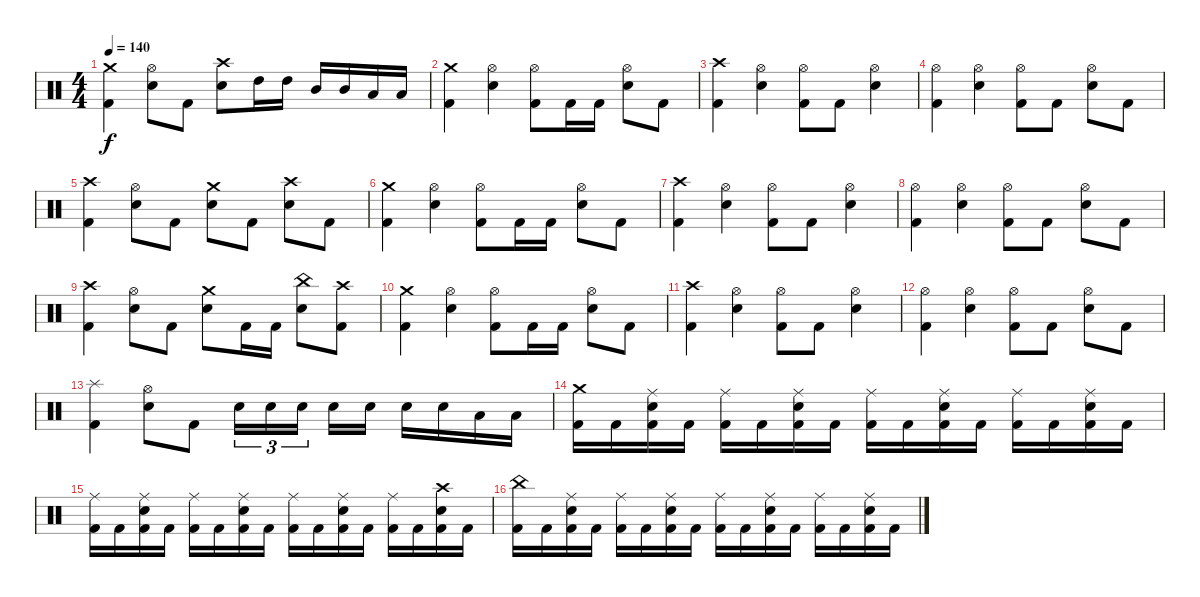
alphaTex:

\track "" {instrument percussion}
\staff {score}
\articulation defaults
\ts (4 4)
\tempo 140
\clef neutral
\ks c
("Crash medium (hit)" "Kick (hit) 2").4{dy f} ("Hi-Hat (open)" "Electric Snare (hit)").8 "Kick (hit) 2".8 ("Crash high (hit)" "Electric Snare (hit)").8 "High Tom (hit)".16 "High Tom (hit)".16 "Mid Tom (hit)".16 "Mid Tom (hit)".16 "Low Tom (hit)".16 "Low Tom (hit)".16 |
("Crash medium (hit)" "Kick (hit) 2").4 ("Hi-Hat (open)" "Electric Snare (hit)").4 ("Hi-Hat (open)" "Kick (hit) 2").8 "Kick (hit) 2".16 "Kick (hit) 2".16 ("Hi-Hat (open)" "Electric Snare (hit)").8 "Kick (hit) 2".8 |
("Crash high (hit)" "Kick (hit) 2").4 ("Hi-Hat (open)" "Electric Snare (hit)").4 ("Hi-Hat (open)" "Kick (hit) 2").8 "Kick (hit) 2".8 ("Hi-Hat (open)" "Electric Snare (hit)").4 |
("Hi-Hat (open)" "Kick (hit) 2").4 ("Hi-Hat (open)" "Electric Snare (hit)").4 ("Hi-Hat (open)" "Kick (hit) 2").8 "Kick (hit) 2".8 ("Hi-Hat (open)" "Electric Snare (hit)").8 "Kick (hit) 2".8 |
("Crash high (hit)" "Kick (hit) 2").4 ("Hi-Hat (open)" "Electric Snare (hit)").8 "Kick (hit) 2".8 ("Crash medium (hit)" "Electric Snare (hit)").8 "Kick (hit) 2".8 ("Crash high (hit)" "Electric Snare (hit)").8 "Kick (hit) 2".8 |
("Crash medium (hit)" "Kick (hit) 2").4 ("Hi-Hat (open)" "Electric Snare (hit)").4 ("Hi-Hat (open)" "Kick (hit) 2").8 "Kick (hit) 2".16 "Kick (hit) 2".16 ("Hi-Hat (open)" "Electric Snare (hit)").8 "Kick (hit) 2".8 |
("Crash high (hit)" "Kick (hit) 2").4 ("Hi-Hat (open)" "Electric Snare (hit)").4 ("Hi-Hat (open)" "Kick (hit) 2").8 "Kick (hit) 2".8 ("Hi-Hat (open)" "Electric Snare (hit)").4 |
("Hi-Hat (open)" "Kick (hit) 2").4 ("Hi-Hat (open)" "Electric Snare (hit)").4 ("Hi-Hat (open)" "Kick (hit) 2").8 "Kick (hit) 2".8 ("Hi-Hat (open)" "Electric Snare (hit)").8 "Kick (hit) 2".8 |
("Crash high (hit)" "Kick (hit) 2").4 ("Hi-Hat (open)" "Electric Snare (hit)").8 "Kick (hit) 2".8 ("Crash medium (hit)" "Electric Snare (hit)").8 "Kick (hit) 2".16 "Kick (hit) 2".16 ("China (hit)" "Electric Snare (hit)").8 ("Crash high (hit)" "Kick (hit) 2").8 |
("Crash medium (hit)" "Kick (hit) 2").4 ("Hi-Hat (open)" "Electric Snare (hit)").4 ("Hi-Hat (open)" "Kick (hit) 2").8 "Kick (hit) 2".16 "Kick (hit) 2".16 ("Hi-Hat (open)" "Electric Snare (hit)").8 "Kick (hit) 2".8 |
("Crash high (hit)" "Kick (hit) 2").4 ("Hi-Hat (open)" "Electric Snare (hit)").4 ("Hi-Hat (open)" "Kick (hit) 2").8 "Kick (hit) 2".8 ("Hi-Hat (open)" "Electric Snare (hit)").4 |
("Hi-Hat (open)" "Kick (hit) 2").4 ("Hi-Hat (open)" "Electric Snare (hit)").4 ("Hi-Hat (open)" "Kick (hit) 2").8 "Kick (hit) 2".8 ("Hi-Hat (open)" "Electric Snare (hit)").8 "Kick (hit) 2".8 |
("Splash (hit)" "Kick (hit) 2").4 ("Hi-Hat (open)" "Electric Snare (hit)").8 "Kick (hit) 2".8 "Electric Snare (hit)".16{tu (3 2)} "Electric Snare (hit)".16{tu (3 2)} "Electric Snare (hit)".16{tu (3 2) beam splitsecondary} "Electric Snare (hit)".16 "Electric Snare (hit)".16 "Electric Snare (hit)".16 "Electric Snare (hit)".16 "Low Tom (hit)".16 "Low Tom (hit)".16 |
("Crash medium (hit)" "Kick (hit) 2").16 "Kick (hit) 2".16 ("Ride (middle)" "Electric Snare (hit)" "Kick (hit) 2").16 "Kick (hit) 2".16 ("Ride (middle)" "Kick (hit) 2").16 "Kick (hit) 2".16 ("Ride (middle)" "Electric Snare (hit)" "Kick (hit) 2").16 "Kick (hit) 2".16 ("Ride (middle)" "Kick (hit) 2").16 "Kick (hit) 2".16 ("Ride (middle)" "Electric Snare (hit)" "Kick (hit) 2").16 "Kick (hit) 2".16 ("Ride (middle)" "Kick (hit) 2").16 "Kick (hit) 2".16 ("Ride (middle)" "Electric Snare (hit)" "Kick (hit) 2").16 "Kick (hit) 2".16 |
("Ride (middle)" "Kick (hit) 2").16 "Kick (hit) 2".16 ("Ride (middle)" "Electric Snare (hit)" "Kick (hit) 2").16 "Kick (hit) 2".16 ("Ride (middle)" "Kick (hit) 2").16 "Kick (hit) 2".16 ("Ride (middle)" "Electric Snare (hit)" "Kick (hit) 2").16 "Kick (hit) 2".16 ("Ride (middle)" "Kick (hit) 2").16 "Kick (hit) 2".16 ("Ride (middle)" "Electric Snare (hit)" "Kick (hit) 2").16 "Kick (hit) 2".16 ("Ride (middle)" "Kick (hit) 2").16 "Kick (hit) 2".16 ("Crash high (hit)" "Electric Snare (hit)" "Kick (hit) 2").16 "Kick (hit) 2".16 |
("China (hit)" "Kick (hit) 2").16 "Kick (hit) 2".16 ("Ride (middle)" "Electric Snare (hit)" "Kick (hit) 2").16 "Kick (hit) 2".16 ("Ride (middle)" "Kick (hit) 2").16 "Kick (hit) 2".16 ("Ride (middle)" "Electric Snare (hit)" "Kick (hit) 2").16 "Kick (hit) 2".16 ("Ride (middle)" "Kick (hit) 2").16 "Kick (hit) 2".16 ("Ride (middle)" "Electric Snare (hit)" "Kick (hit) 2").16 "Kick (hit) 2".16 ("Ride (middle)" "Kick (hit) 2").16 "Kick (hit) 2".16 ("Ride (middle)" "Electric Snare (hit)" "Kick (hit) 2").16 "Kick (hit) 2".16
